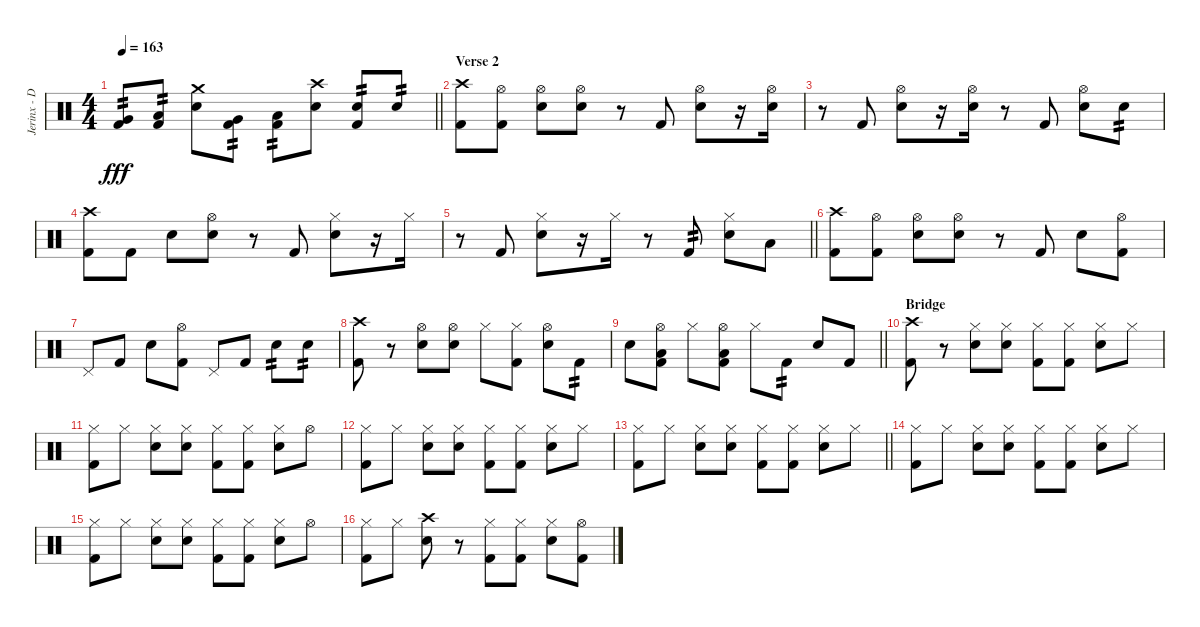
\track ("Jerinx - Drum" "Jerinx - D") {instrument percussion}
\staff {score}
\articulation defaults
\ts (4 4)
\tempo 163
\clef neutral
\barLineRight lightlight
\ks c
("Kick (hit) 2" "Very Low Tom (hit)").8{tp 2 dy fff} ("Kick (hit) 2" "Low Floor Tom (hit)").8{tp 2} ("Snare (hit) 2" "Crash medium (hit)").8 ("Kick (hit) 2" "Very Low Tom (hit)").8{tp 2} ("Kick (hit) 2" "Low Floor Tom (hit)").8{tp 2} ("Snare (hit) 2" "Crash high (hit)").8 ("Snare (hit) 2" "Kick (hit) 2").8{tp 2} "Snare (hit) 2".8{tp 2} |
\section ("" "Verse 2")
("Kick (hit) 2" "Crash high (hit)").8 ("Hi-Hat (open)" "Kick (hit) 2").8 ("Hi-Hat (open)" "Snare (hit) 2").8 ("Hi-Hat (open)" "Snare (hit) 2").8 r.8 "Kick (hit) 2".8 ("Hi-Hat (open)" "Snare (hit) 2").8 r.16 ("Hi-Hat (open)" "Snare (hit) 2").16 |
r.8 "Kick (hit) 2".8 ("Hi-Hat (open)" "Snare (hit) 2").8 r.16 ("Hi-Hat (open)" "Snare (hit) 2").16 r.8 "Kick (hit) 2".8 ("Hi-Hat (open)" "Snare (hit) 2").8 "Snare (hit) 2".8{tp 2} |
("Kick (hit) 2" "Crash high (hit)").8 "Kick (hit) 2".8 "Snare (hit) 2".8 ("Hi-Hat (open)" "Snare (hit) 2").8 r.8 "Kick (hit) 2".8 ("Hi-Hat (closed)" "Snare (hit) 2").8 r.16 "Hi-Hat (closed)".16 |
\barLineRight lightlight
r.8 "Kick (hit) 2".8 ("Hi-Hat (closed)" "Snare (hit) 2").8 r.16 "Hi-Hat (closed)".16 r.8 "Kick (hit) 2".8{tp 2} ("Hi-Hat (closed)" "Snare (hit) 2").8 "Low Floor Tom (hit)".8 |
("Kick (hit) 2" "Crash high (hit)").8 ("Hi-Hat (open)" "Kick (hit) 2").8 ("Hi-Hat (open)" "Snare (hit) 2").8 ("Hi-Hat (open)" "Snare (hit) 2").8 r.8 "Kick (hit) 2".8 "Snare (hit) 2".8 ("Hi-Hat (open)" "Kick (hit) 2").8 |
"Pedal Hi-Hat (hit)".8 "Kick (hit) 2".8 "Snare (hit) 2".8 ("Hi-Hat (open)" "Kick (hit) 2").8 "Pedal Hi-Hat (hit)".8 "Kick (hit) 2".8 "Snare (hit) 2".8{tp 2} "Snare (hit) 2".8{tp 2} |
("Kick (hit) 2" "Crash high (hit)").8 r.8 ("Hi-Hat (open)" "Snare (hit) 2").8 ("Hi-Hat (open)" "Snare (hit) 2").8 "Hi-Hat (closed)".8 ("Hi-Hat (closed)" "Kick (hit) 2").8 ("Hi-Hat (open)" "Snare (hit) 2").8 "Kick (hit) 2".8{tp 2} |
\barLineRight lightlight "Snare (hit) 2".8
("Hi-Hat (open)" "Kick (hit) 2" "Low Floor Tom (hit)").8 "Hi-Hat (closed)".8 ("Hi-Hat (open)" "Kick (hit) 2" "Low Floor Tom (hit)").8 "Hi-Hat (closed)".8 "Kick (hit) 2".8{tp 2} "Snare (hit) 2".8 "Kick (hit) 2".8 |
\section ("" "Bridge")
("Kick (hit) 2" "Crash high (hit)").8 r.8 ("Hi-Hat (closed)" "Snare (hit) 2").8 ("Hi-Hat (closed)" "Snare (hit) 2").8 ("Hi-Hat (closed)" "Kick (hit) 2").8 ("Hi-Hat (closed)" "Kick (hit) 2").8 ("Hi-Hat (closed)" "Snare (hit) 2").8 "Hi-Hat (closed)".8 |
("Hi-Hat (closed)" "Kick (hit) 2").8 "Hi-Hat (closed)".8 ("Hi-Hat (closed)" "Snare (hit) 2").8 ("Hi-Hat (closed)" "Snare (hit) 2").8 ("Hi-Hat (closed)" "Kick (hit) 2").8 ("Hi-Hat (closed)" "Kick (hit) 2").8 ("Hi-Hat (closed)" "Snare (hit) 2").8 "Hi-Hat (open)".8 |
("Hi-Hat (closed)" "Kick (hit) 2").8 "Hi-Hat (closed)".8 ("Hi-Hat (closed)" "Snare (hit) 2").8 ("Hi-Hat (closed)" "Snare (hit) 2").8 ("Hi-Hat (closed)" "Kick (hit) 2").8 ("Hi-Hat (closed)" "Kick (hit) 2").8 ("Hi-Hat (closed)" "Snare (hit) 2").8 "Hi-Hat (closed)".8 |
\barLineRight lightlight
("Hi-Hat (closed)" "Kick (hit) 2").8 "Hi-Hat (closed)".8 ("Hi-Hat (closed)" "Snare (hit) 2").8 ("Hi-Hat (closed)" "Snare (hit) 2").8 ("Hi-Hat (closed)" "Kick (hit) 2").8 ("Hi-Hat (closed)" "Kick (hit) 2").8 ("Hi-Hat (closed)" "Snare (hit) 2").8 "Hi-Hat (closed)".8 |
("Hi-Hat (closed)" "Kick (hit) 2").8 "Hi-Hat (closed)".8 ("Hi-Hat (closed)" "Snare (hit) 2").8 ("Hi-Hat (closed)" "Snare (hit) 2").8 ("Hi-Hat (closed)" "Kick (hit) 2").8 ("Hi-Hat (closed)" "Kick (hit) 2").8 ("Hi-Hat (closed)" "Snare (hit) 2").8 "Hi-Hat (closed)".8 |
("Hi-Hat (closed)" "Kick (hit) 2").8 "Hi-Hat (closed)".8 ("Hi-Hat (closed)" "Snare (hit) 2").8 ("Hi-Hat (closed)" "Snare (hit) 2").8 ("Hi-Hat (closed)" "Kick (hit) 2").8 ("Hi-Hat (closed)" "Kick (hit) 2").8 ("Hi-Hat (closed)" "Snare (hit) 2").8 "Hi-Hat (open)".8 |
("Hi-Hat (closed)" "Kick (hit) 2").8 "Hi-Hat (closed)".8 ("Snare (hit) 2" "Crash high (hit)").8 r.8 ("Hi-Hat (closed)" "Kick (hit) 2").8 ("Hi-Hat (closed)" "Kick (hit) 2").8 ("Hi-Hat (closed)" "Snare (hit) 2").8 ("Hi-Hat (open)" "Kick (hit) 2").8
